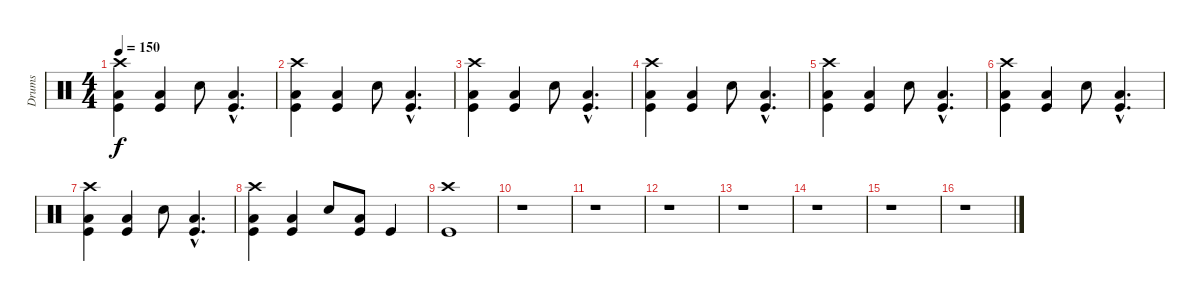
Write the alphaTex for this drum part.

\track ("Drums" "Drums") {instrument percussion}
\staff {score}
\articulation defaults
\ts (4 4)
\tempo 150
\clef neutral
\ks c
("Crash high (hit)" "Low Floor Tom (hit)" "Kick (hit)").4{dy f} ("Low Floor Tom (hit)" "Kick (hit)").4 "Snare (hit) 2".8 ("Low Floor Tom (hit)"{hac} "Kick (hit)"{hac}).4{d} |
("Crash high (hit)" "Low Floor Tom (hit)" "Kick (hit)").4 ("Low Floor Tom (hit)" "Kick (hit)").4 "Snare (hit) 2".8 ("Low Floor Tom (hit)"{hac} "Kick (hit)"{hac}).4{d} |
("Crash high (hit)" "Low Floor Tom (hit)" "Kick (hit)").4 ("Low Floor Tom (hit)" "Kick (hit)").4 "Snare (hit) 2".8 ("Low Floor Tom (hit)"{hac} "Kick (hit)"{hac}).4{d} |
("Crash high (hit)" "Low Floor Tom (hit)" "Kick (hit)").4 ("Low Floor Tom (hit)" "Kick (hit)").4 "Snare (hit) 2".8 ("Low Floor Tom (hit)"{hac} "Kick (hit)"{hac}).4{d} |
("Crash high (hit)" "Low Floor Tom (hit)" "Kick (hit)").4 ("Low Floor Tom (hit)" "Kick (hit)").4 "Snare (hit) 2".8 ("Low Floor Tom (hit)"{hac} "Kick (hit)"{hac}).4{d} |
("Crash high (hit)" "Low Floor Tom (hit)" "Kick (hit)").4 ("Low Floor Tom (hit)" "Kick (hit)").4 "Snare (hit) 2".8 ("Low Floor Tom (hit)"{hac} "Kick (hit)"{hac}).4{d} |
("Crash high (hit)" "Low Floor Tom (hit)" "Kick (hit)").4 ("Low Floor Tom (hit)" "Kick (hit)").4 "Snare (hit) 2".8 ("Low Floor Tom (hit)"{hac} "Kick (hit)"{hac}).4{d} |
("Crash high (hit)" "Low Floor Tom (hit)" "Kick (hit)").4 ("Low Floor Tom (hit)" "Kick (hit)").4 "Snare (hit) 2".8 ("Low Floor Tom (hit)" "Kick (hit)").8 "Kick (hit)".4 |
("Crash high (hit)" "Kick (hit)").1 |
r.1 |
r.1 |
r.1 |
r.1 |
r.1 |
r.1 |
r.1
